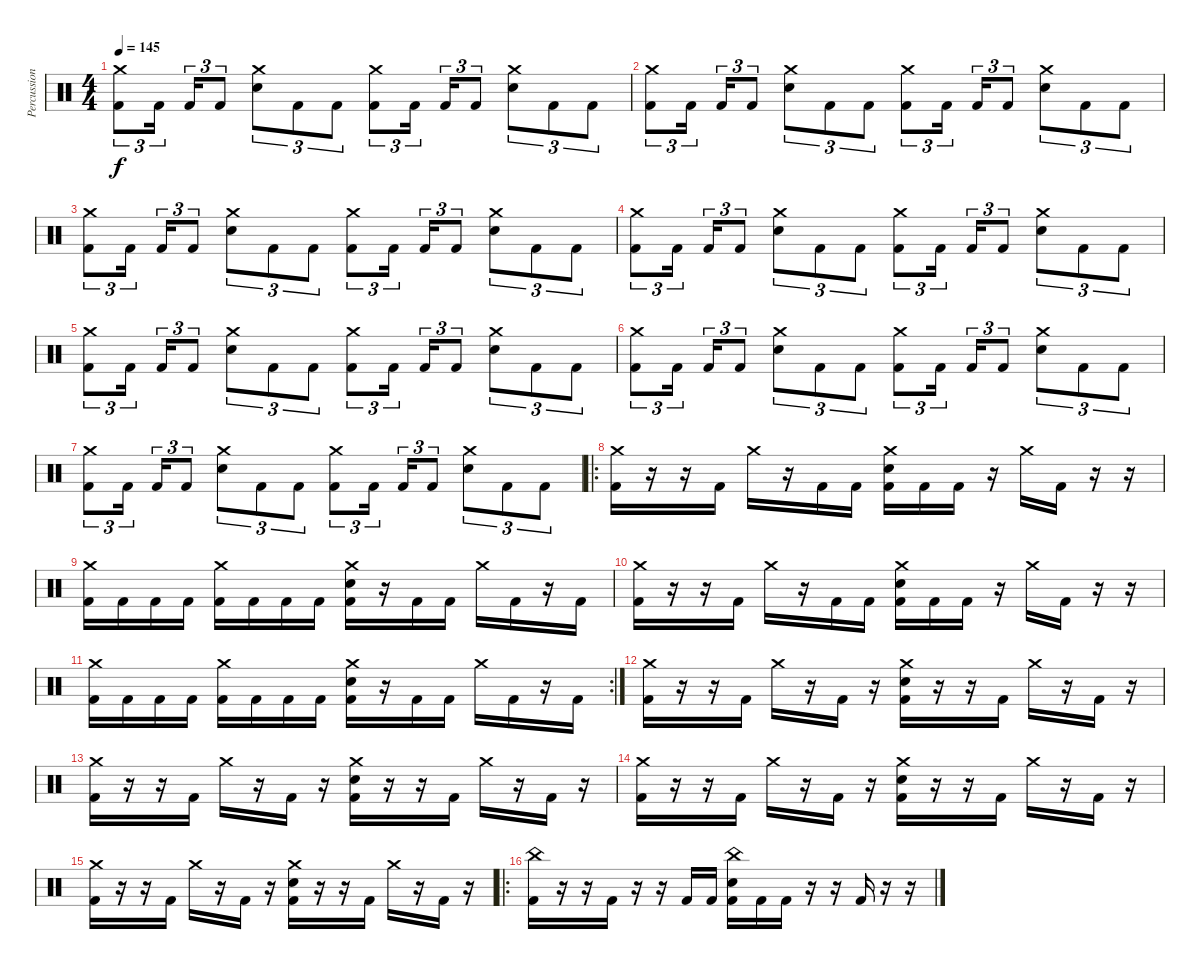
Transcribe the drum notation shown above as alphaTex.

\track ("Percussion" "Percussion") {instrument percussion}
\staff {score}
\articulation defaults
\ts (4 4)
\tempo 145
\clef neutral
\ks c
("Crash medium (hit)" "Kick (hit) 2").8{tu (3 2) dy f} "Kick (hit) 2".16{tu (3 2) beam splitsecondary} "Kick (hit) 2".16{tu (3 2)} "Kick (hit) 2".8{tu (3 2)} ("Crash medium (hit)" "Electric Snare (hit)").8{tu (3 2)} "Kick (hit) 2".8{tu (3 2)} "Kick (hit) 2".8{tu (3 2)} ("Crash medium (hit)" "Kick (hit) 2").8{tu (3 2)} "Kick (hit) 2".16{tu (3 2) beam splitsecondary} "Kick (hit) 2".16{tu (3 2)} "Kick (hit) 2".8{tu (3 2)} ("Crash medium (hit)" "Electric Snare (hit)").8{tu (3 2)} "Kick (hit) 2".8{tu (3 2)} "Kick (hit) 2".8{tu (3 2)} |
("Crash medium (hit)" "Kick (hit) 2").8{tu (3 2)} "Kick (hit) 2".16{tu (3 2) beam splitsecondary} "Kick (hit) 2".16{tu (3 2)} "Kick (hit) 2".8{tu (3 2)} ("Crash medium (hit)" "Electric Snare (hit)").8{tu (3 2)} "Kick (hit) 2".8{tu (3 2)} "Kick (hit) 2".8{tu (3 2)} ("Crash medium (hit)" "Kick (hit) 2").8{tu (3 2)} "Kick (hit) 2".16{tu (3 2) beam splitsecondary} "Kick (hit) 2".16{tu (3 2)} "Kick (hit) 2".8{tu (3 2)} ("Crash medium (hit)" "Electric Snare (hit)").8{tu (3 2)} "Kick (hit) 2".8{tu (3 2)} "Kick (hit) 2".8{tu (3 2)} |
("Crash medium (hit)" "Kick (hit) 2").8{tu (3 2)} "Kick (hit) 2".16{tu (3 2) beam splitsecondary} "Kick (hit) 2".16{tu (3 2)} "Kick (hit) 2".8{tu (3 2)} ("Crash medium (hit)" "Electric Snare (hit)").8{tu (3 2)} "Kick (hit) 2".8{tu (3 2)} "Kick (hit) 2".8{tu (3 2)} ("Crash medium (hit)" "Kick (hit) 2").8{tu (3 2)} "Kick (hit) 2".16{tu (3 2) beam splitsecondary} "Kick (hit) 2".16{tu (3 2)} "Kick (hit) 2".8{tu (3 2)} ("Crash medium (hit)" "Electric Snare (hit)").8{tu (3 2)} "Kick (hit) 2".8{tu (3 2)} "Kick (hit) 2".8{tu (3 2)} |
("Crash medium (hit)" "Kick (hit) 2").8{tu (3 2)} "Kick (hit) 2".16{tu (3 2) beam splitsecondary} "Kick (hit) 2".16{tu (3 2)} "Kick (hit) 2".8{tu (3 2)} ("Crash medium (hit)" "Electric Snare (hit)").8{tu (3 2)} "Kick (hit) 2".8{tu (3 2)} "Kick (hit) 2".8{tu (3 2)} ("Crash medium (hit)" "Kick (hit) 2").8{tu (3 2)} "Kick (hit) 2".16{tu (3 2) beam splitsecondary} "Kick (hit) 2".16{tu (3 2)} "Kick (hit) 2".8{tu (3 2)} ("Crash medium (hit)" "Electric Snare (hit)").8{tu (3 2)} "Kick (hit) 2".8{tu (3 2)} "Kick (hit) 2".8{tu (3 2)} |
("Crash medium (hit)" "Kick (hit) 2").8{tu (3 2)} "Kick (hit) 2".16{tu (3 2) beam splitsecondary} "Kick (hit) 2".16{tu (3 2)} "Kick (hit) 2".8{tu (3 2)} ("Crash medium (hit)" "Electric Snare (hit)").8{tu (3 2)} "Kick (hit) 2".8{tu (3 2)} "Kick (hit) 2".8{tu (3 2)} ("Crash medium (hit)" "Kick (hit) 2").8{tu (3 2)} "Kick (hit) 2".16{tu (3 2) beam splitsecondary} "Kick (hit) 2".16{tu (3 2)} "Kick (hit) 2".8{tu (3 2)} ("Crash medium (hit)" "Electric Snare (hit)").8{tu (3 2)} "Kick (hit) 2".8{tu (3 2)} "Kick (hit) 2".8{tu (3 2)} |
("Crash medium (hit)" "Kick (hit) 2").8{tu (3 2)} "Kick (hit) 2".16{tu (3 2) beam splitsecondary} "Kick (hit) 2".16{tu (3 2)} "Kick (hit) 2".8{tu (3 2)} ("Crash medium (hit)" "Electric Snare (hit)").8{tu (3 2)} "Kick (hit) 2".8{tu (3 2)} "Kick (hit) 2".8{tu (3 2)} ("Crash medium (hit)" "Kick (hit) 2").8{tu (3 2)} "Kick (hit) 2".16{tu (3 2) beam splitsecondary} "Kick (hit) 2".16{tu (3 2)} "Kick (hit) 2".8{tu (3 2)} ("Crash medium (hit)" "Electric Snare (hit)").8{tu (3 2)} "Kick (hit) 2".8{tu (3 2)} "Kick (hit) 2".8{tu (3 2)} |
("Crash medium (hit)" "Kick (hit) 2").8{tu (3 2)} "Kick (hit) 2".16{tu (3 2) beam splitsecondary} "Kick (hit) 2".16{tu (3 2)} "Kick (hit) 2".8{tu (3 2)} ("Crash medium (hit)" "Electric Snare (hit)").8{tu (3 2)} "Kick (hit) 2".8{tu (3 2)} "Kick (hit) 2".8{tu (3 2)} ("Crash medium (hit)" "Kick (hit) 2").8{tu (3 2)} "Kick (hit) 2".16{tu (3 2) beam splitsecondary} "Kick (hit) 2".16{tu (3 2)} "Kick (hit) 2".8{tu (3 2)} ("Crash medium (hit)" "Electric Snare (hit)").8{tu (3 2)} "Kick (hit) 2".8{tu (3 2)} "Kick (hit) 2".8{tu (3 2)} |
\ro
("Crash medium (hit)" "Kick (hit) 2").16 r.16 r.16 "Kick (hit) 2".16 "Crash medium (hit)".16 r.16 "Kick (hit) 2".16 "Kick (hit) 2".16 ("Crash medium (hit)" "Electric Snare (hit)" "Kick (hit) 2").16 "Kick (hit) 2".16 "Kick (hit) 2".16 r.16 "Crash medium (hit)".16 "Kick (hit) 2".16 r.16 r.16 |
("Crash medium (hit)" "Kick (hit) 2").16 "Kick (hit) 2".16 "Kick (hit) 2".16 "Kick (hit) 2".16 ("Crash medium (hit)" "Kick (hit) 2").16 "Kick (hit) 2".16 "Kick (hit) 2".16 "Kick (hit) 2".16 ("Crash medium (hit)" "Electric Snare (hit)" "Kick (hit) 2").16 r.16 "Kick (hit) 2".16 "Kick (hit) 2".16 "Crash medium (hit)".16 "Kick (hit) 2".16 r.16 "Kick (hit) 2".16 |
("Crash medium (hit)" "Kick (hit) 2").16 r.16 r.16 "Kick (hit) 2".16 "Crash medium (hit)".16 r.16 "Kick (hit) 2".16 "Kick (hit) 2".16 ("Crash medium (hit)" "Electric Snare (hit)" "Kick (hit) 2").16 "Kick (hit) 2".16 "Kick (hit) 2".16 r.16 "Crash medium (hit)".16 "Kick (hit) 2".16 r.16 r.16 |
\rc 2
("Crash medium (hit)" "Kick (hit) 2").16 "Kick (hit) 2".16 "Kick (hit) 2".16 "Kick (hit) 2".16 ("Crash medium (hit)" "Kick (hit) 2").16 "Kick (hit) 2".16 "Kick (hit) 2".16 "Kick (hit) 2".16 ("Crash medium (hit)" "Electric Snare (hit)" "Kick (hit) 2").16 r.16 "Kick (hit) 2".16 "Kick (hit) 2".16 "Crash medium (hit)".16 "Kick (hit) 2".16 r.16 "Kick (hit) 2".16 |
("Crash medium (hit)" "Kick (hit) 2").16 r.16 r.16 "Kick (hit) 2".16 "Crash medium (hit)".16 r.16 "Kick (hit) 2".16 r.16 ("Crash medium (hit)" "Electric Snare (hit)" "Kick (hit) 2").16 r.16 r.16 "Kick (hit) 2".16 "Crash medium (hit)".16 r.16 "Kick (hit) 2".16 r.16 |
("Crash medium (hit)" "Kick (hit) 2").16 r.16 r.16 "Kick (hit) 2".16 "Crash medium (hit)".16 r.16 "Kick (hit) 2".16 r.16 ("Crash medium (hit)" "Electric Snare (hit)" "Kick (hit) 2").16 r.16 r.16 "Kick (hit) 2".16 "Crash medium (hit)".16 r.16 "Kick (hit) 2".16 r.16 |
("Crash medium (hit)" "Kick (hit) 2").16 r.16 r.16 "Kick (hit) 2".16 "Crash medium (hit)".16 r.16 "Kick (hit) 2".16 r.16 ("Crash medium (hit)" "Electric Snare (hit)" "Kick (hit) 2").16 r.16 r.16 "Kick (hit) 2".16 "Crash medium (hit)".16 r.16 "Kick (hit) 2".16 r.16 |
("Crash medium (hit)" "Kick (hit) 2").16 r.16 r.16 "Kick (hit) 2".16 "Crash medium (hit)".16 r.16 "Kick (hit) 2".16 r.16 ("Crash medium (hit)" "Electric Snare (hit)" "Kick (hit) 2").16 r.16 r.16 "Kick (hit) 2".16 "Crash medium (hit)".16 r.16 "Kick (hit) 2".16 r.16 |
\ro
("China (hit)" "Kick (hit) 2").16 r.16 r.16 "Kick (hit) 2".16 r.16 r.16 "Kick (hit) 2".16 "Kick (hit) 2".16 ("China (hit)" "Electric Snare (hit)" "Kick (hit) 2").16 "Kick (hit) 2".16 "Kick (hit) 2".16 r.16 r.16 "Kick (hit) 2".16 r.16 r.16
